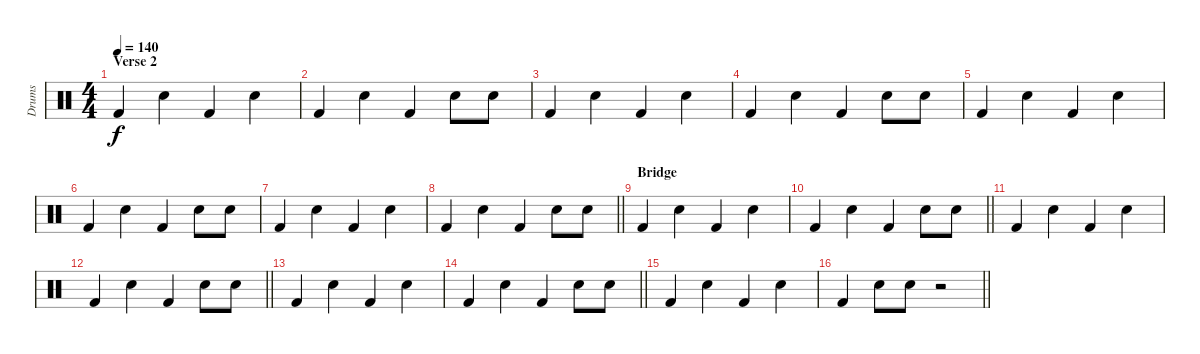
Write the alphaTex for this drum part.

\track ("Drums" "Drums") {instrument percussion}
\staff {score}
\articulation defaults
\ts (4 4)
\section ("" "Verse 2")
\tempo 140
\clef neutral
\ks c "Kick (hit) 2".4{dy f} "Snare (hit) 2".4 "Kick (hit) 2".4 "Snare (hit) 2".4
|
"Kick (hit) 2".4 "Snare (hit) 2".4 "Kick (hit) 2".4 "Snare (hit) 2".8 "Snare (hit) 2".8 |
"Kick (hit) 2".4 "Snare (hit) 2".4 "Kick (hit) 2".4 "Snare (hit) 2".4 |
"Kick (hit) 2".4 "Snare (hit) 2".4 "Kick (hit) 2".4 "Snare (hit) 2".8 "Snare (hit) 2".8 |
"Kick (hit) 2".4 "Snare (hit) 2".4 "Kick (hit) 2".4 "Snare (hit) 2".4 |
"Kick (hit) 2".4 "Snare (hit) 2".4 "Kick (hit) 2".4 "Snare (hit) 2".8 "Snare (hit) 2".8 |
"Kick (hit) 2".4 "Snare (hit) 2".4 "Kick (hit) 2".4 "Snare (hit) 2".4 |
\barLineRight lightlight "Kick (hit) 2".4 "Snare (hit) 2".4 "Kick (hit) 2".4 "Snare (hit) 2".8 "Snare (hit) 2".8
|
\section ("" "Bridge")
"Kick (hit) 2".4 "Snare (hit) 2".4 "Kick (hit) 2".4 "Snare (hit) 2".4 |
\barLineRight lightlight "Kick (hit) 2".4 "Snare (hit) 2".4 "Kick (hit) 2".4 "Snare (hit) 2".8 "Snare (hit) 2".8
|
"Kick (hit) 2".4 "Snare (hit) 2".4 "Kick (hit) 2".4 "Snare (hit) 2".4 |
\barLineRight lightlight "Kick (hit) 2".4 "Snare (hit) 2".4 "Kick (hit) 2".4 "Snare (hit) 2".8 "Snare (hit) 2".8
|
"Kick (hit) 2".4 "Snare (hit) 2".4 "Kick (hit) 2".4 "Snare (hit) 2".4 |
\barLineRight lightlight "Kick (hit) 2".4 "Snare (hit) 2".4 "Kick (hit) 2".4 "Snare (hit) 2".8 "Snare (hit) 2".8
|
"Kick (hit) 2".4 "Snare (hit) 2".4 "Kick (hit) 2".4 "Snare (hit) 2".4 |
\barLineRight lightlight "Kick (hit) 2".4 "Snare (hit) 2".8 "Snare (hit) 2".8
r.2
